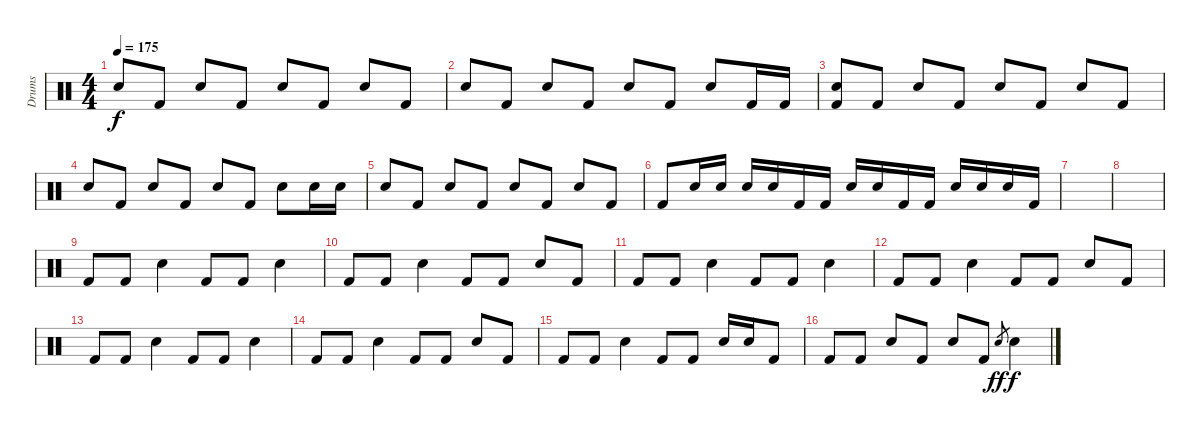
\track ("Drums" "Drums") {instrument percussion}
\staff {score}
\articulation defaults
\ts (4 4)
\tempo 175
\clef neutral
\ks c "Snare (hit) 2".8{dy f} "Kick (hit) 2".8 "Snare (hit) 2".8 "Kick (hit) 2".8 "Snare (hit) 2".8 "Kick (hit) 2".8 "Snare (hit) 2".8 "Kick (hit) 2".8
|
"Snare (hit) 2".8 "Kick (hit) 2".8 "Snare (hit) 2".8 "Kick (hit) 2".8 "Snare (hit) 2".8 "Kick (hit) 2".8 "Snare (hit) 2".8 "Kick (hit) 2".16 "Kick (hit) 2".16 |
("Snare (hit) 2" "Kick (hit) 2").8 "Kick (hit) 2".8 "Snare (hit) 2".8 "Kick (hit) 2".8 "Snare (hit) 2".8 "Kick (hit) 2".8 "Snare (hit) 2".8 "Kick (hit) 2".8 |
"Snare (hit) 2".8 "Kick (hit) 2".8 "Snare (hit) 2".8 "Kick (hit) 2".8 "Snare (hit) 2".8 "Kick (hit) 2".8 "Snare (hit) 2".8 "Snare (hit) 2".16 "Snare (hit) 2".16 |
"Snare (hit) 2".8 "Kick (hit) 2".8 "Snare (hit) 2".8 "Kick (hit) 2".8 "Snare (hit) 2".8 "Kick (hit) 2".8 "Snare (hit) 2".8 "Kick (hit) 2".8 |
"Kick (hit) 2".8 "Snare (hit) 2".16 "Snare (hit) 2".16 "Snare (hit) 2".16 "Snare (hit) 2".16 "Kick (hit) 2".16 "Kick (hit) 2".16 "Snare (hit) 2".16 "Snare (hit) 2".16 "Kick (hit) 2".16 "Kick (hit) 2".16 "Snare (hit) 2".16 "Snare (hit) 2".16 "Snare (hit) 2".16 "Kick (hit) 2".16 |
|
|
"Kick (hit) 2".8 "Kick (hit) 2".8 "Snare (hit) 2".4 "Kick (hit) 2".8 "Kick (hit) 2".8 "Snare (hit) 2".4 |
"Kick (hit) 2".8 "Kick (hit) 2".8 "Snare (hit) 2".4 "Kick (hit) 2".8 "Kick (hit) 2".8 "Snare (hit) 2".8 "Kick (hit) 2".8 |
"Kick (hit) 2".8 "Kick (hit) 2".8 "Snare (hit) 2".4 "Kick (hit) 2".8 "Kick (hit) 2".8 "Snare (hit) 2".4 |
"Kick (hit) 2".8 "Kick (hit) 2".8 "Snare (hit) 2".4 "Kick (hit) 2".8 "Kick (hit) 2".8 "Snare (hit) 2".8 "Kick (hit) 2".8 |
"Kick (hit) 2".8 "Kick (hit) 2".8 "Snare (hit) 2".4 "Kick (hit) 2".8 "Kick (hit) 2".8 "Snare (hit) 2".4 |
"Kick (hit) 2".8 "Kick (hit) 2".8 "Snare (hit) 2".4 "Kick (hit) 2".8 "Kick (hit) 2".8 "Snare (hit) 2".8 "Kick (hit) 2".8 |
"Kick (hit) 2".8 "Kick (hit) 2".8 "Snare (hit) 2".4 "Kick (hit) 2".8 "Kick (hit) 2".8 "Snare (hit) 2".16 "Snare (hit) 2".16 "Kick (hit) 2".8 |
"Kick (hit) 2".8 "Kick (hit) 2".8 "Snare (hit) 2".8 "Kick (hit) 2".8 "Snare (hit) 2".8 "Kick (hit) 2".8 "Snare (hit) 2".8{gr dy ff} "Snare (hit) 2".4{dy f}
